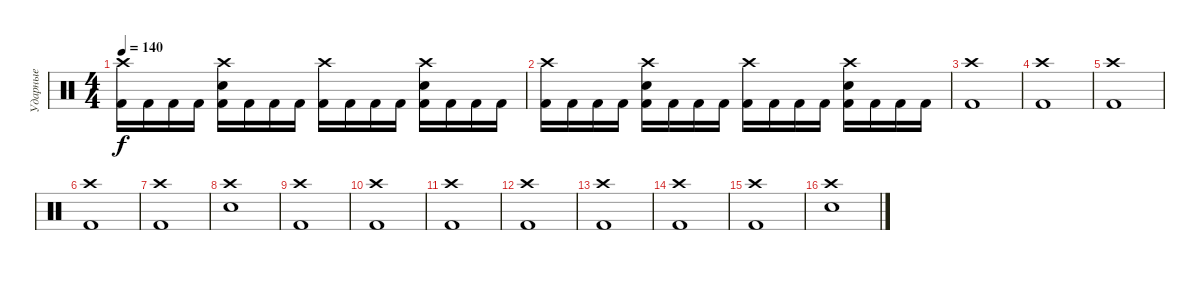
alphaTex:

\track ("Ударные" "Ударные") {mute instrument percussion}
\staff {score}
\articulation defaults
\ts (4 4)
\tempo 140
\clef neutral
\ks c
("Crash high (hit)" "Kick (hit) 2").16{dy f} "Kick (hit) 2".16 "Kick (hit) 2".16 "Kick (hit) 2".16 ("Crash high (hit)" "Electric Snare (hit)" "Kick (hit) 2").16 "Kick (hit) 2".16 "Kick (hit) 2".16 "Kick (hit) 2".16 ("Crash high (hit)" "Kick (hit) 2").16 "Kick (hit) 2".16 "Kick (hit) 2".16 "Kick (hit) 2".16 ("Crash high (hit)" "Electric Snare (hit)" "Kick (hit) 2").16 "Kick (hit) 2".16 "Kick (hit) 2".16 "Kick (hit) 2".16 |
("Crash high (hit)" "Kick (hit) 2").16 "Kick (hit) 2".16 "Kick (hit) 2".16 "Kick (hit) 2".16 ("Crash high (hit)" "Electric Snare (hit)" "Kick (hit) 2").16 "Kick (hit) 2".16 "Kick (hit) 2".16 "Kick (hit) 2".16 ("Crash high (hit)" "Kick (hit) 2").16 "Kick (hit) 2".16 "Kick (hit) 2".16 "Kick (hit) 2".16 ("Crash high (hit)" "Electric Snare (hit)" "Kick (hit) 2").16 "Kick (hit) 2".16 "Kick (hit) 2".16 "Kick (hit) 2".16 |
("Kick (hit) 2" "Crash high (hit)").1 |
("Kick (hit) 2" "Crash high (hit)").1 |
("Kick (hit) 2" "Crash high (hit)").1 |
("Kick (hit) 2" "Crash high (hit)").1 |
("Kick (hit) 2" "Crash high (hit)").1 |
("Electric Snare (hit)" "Crash high (hit)").1 |
("Kick (hit) 2" "Crash high (hit)").1 |
("Kick (hit) 2" "Crash high (hit)").1 |
("Kick (hit) 2" "Crash high (hit)").1 |
("Kick (hit) 2" "Crash high (hit)").1 |
("Kick (hit) 2" "Crash high (hit)").1 |
("Kick (hit) 2" "Crash high (hit)").1 |
("Kick (hit) 2" "Crash high (hit)").1 |
("Electric Snare (hit)" "Crash high (hit)").1
